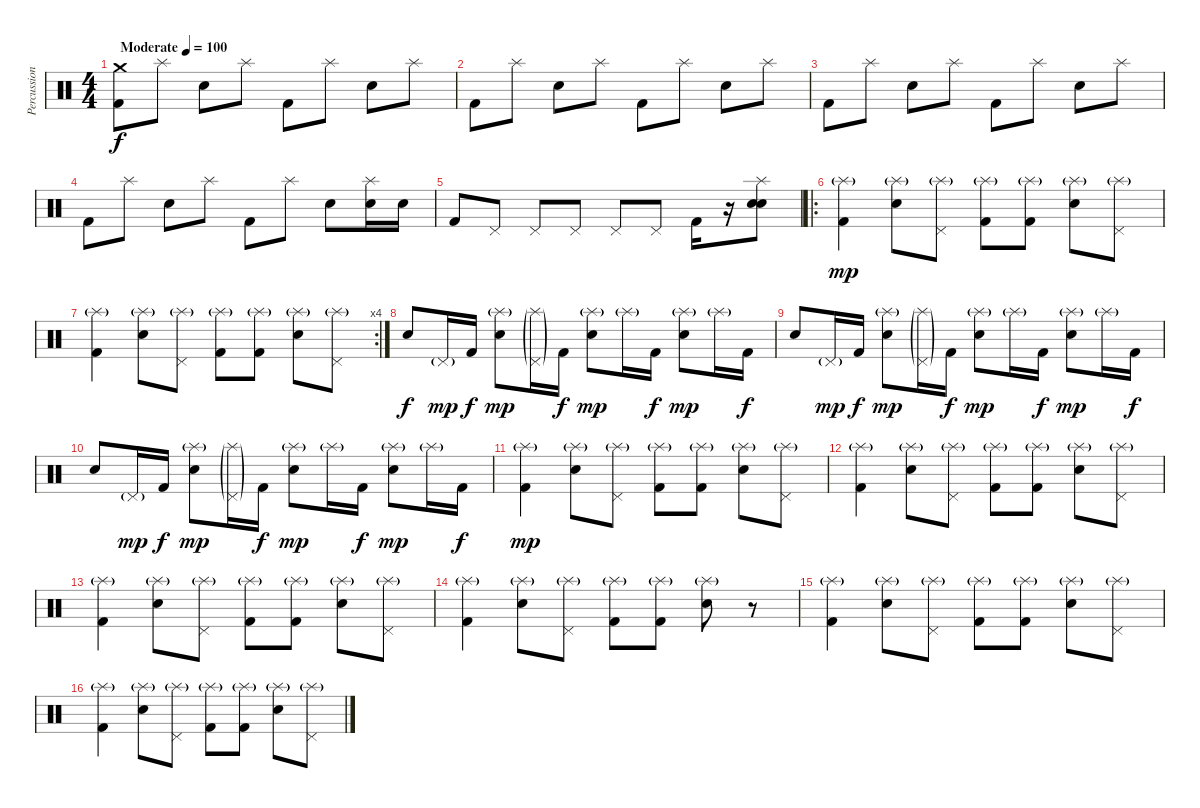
\track ("Percussion" "Percussion") {instrument percussion}
\staff {score}
\articulation defaults
\ts (4 4)
\tempo (100 "Moderate")
\clef neutral
\ks c
("Crash medium (hit)" "Kick (hit) 2").8{dy f} "Splash (hit)".8 "Electric Snare (hit)".8 "Splash (hit)".8 "Kick (hit) 2".8 "Splash (hit)".8 "Electric Snare (hit)".8 "Splash (hit)".8 |
"Kick (hit) 2".8 "Splash (hit)".8 "Electric Snare (hit)".8 "Splash (hit)".8 "Kick (hit) 2".8 "Splash (hit)".8 "Electric Snare (hit)".8 "Splash (hit)".8 |
"Kick (hit) 2".8 "Splash (hit)".8 "Electric Snare (hit)".8 "Splash (hit)".8 "Kick (hit) 2".8 "Splash (hit)".8 "Electric Snare (hit)".8 "Splash (hit)".8 |
"Kick (hit) 2".8 "Splash (hit)".8 "Electric Snare (hit)".8 "Splash (hit)".8 "Kick (hit) 2".8 "Splash (hit)".8 "Electric Snare (hit)".8 ("Splash (hit)" "Electric Snare (hit)").16 "Electric Snare (hit)".16 |
"Kick (hit) 2".8 "Pedal Hi-Hat (hit)".8 "Pedal Hi-Hat (hit)".8 "Pedal Hi-Hat (hit)".8 "Pedal Hi-Hat (hit)".8 "Pedal Hi-Hat (hit)".8 "Kick (hit) 2".16 r.16 ("Splash (hit)" "Snare (hit) 2" "Electric Snare (hit)").8 |
\ro
("Splash (hit)"{g} "Kick (hit) 2").4{dy mp} ("Splash (hit)"{g} "Electric Snare (hit)").8 ("Splash (hit)"{g} "Pedal Hi-Hat (hit)").8 ("Splash (hit)"{g} "Kick (hit) 2").8 ("Splash (hit)"{g} "Kick (hit) 2").8 ("Splash (hit)"{g} "Electric Snare (hit)").8 ("Splash (hit)"{g} "Pedal Hi-Hat (hit)").8 |
\rc 4
("Splash (hit)"{g} "Kick (hit) 2").4 ("Splash (hit)"{g} "Electric Snare (hit)").8 ("Splash (hit)"{g} "Pedal Hi-Hat (hit)").8 ("Splash (hit)"{g} "Kick (hit) 2").8 ("Splash (hit)"{g} "Kick (hit) 2").8 ("Splash (hit)"{g} "Electric Snare (hit)").8 ("Splash (hit)"{g} "Pedal Hi-Hat (hit)").8 |
"Electric Snare (hit)".8{dy f} "Pedal Hi-Hat (hit)"{g}.16{dy mp} "Kick (hit) 2".16{dy f} ("Splash (hit)"{g} "Electric Snare (hit)").8{dy mp} ("Splash (hit)"{g} "Pedal Hi-Hat (hit)"{g}).16 "Kick (hit) 2".16{dy f} ("Splash (hit)"{g} "Electric Snare (hit)").8{dy mp} "Splash (hit)"{g}.16 "Kick (hit) 2".16{dy f} ("Splash (hit)"{g} "Electric Snare (hit)").8{dy mp} "Splash (hit)"{g}.16 "Kick (hit) 2".16{dy f} |
"Electric Snare (hit)".8 "Pedal Hi-Hat (hit)"{g}.16{dy mp} "Kick (hit) 2".16{dy f} ("Splash (hit)"{g} "Electric Snare (hit)").8{dy mp} ("Splash (hit)"{g} "Pedal Hi-Hat (hit)"{g}).16 "Kick (hit) 2".16{dy f} ("Splash (hit)"{g} "Electric Snare (hit)").8{dy mp} "Splash (hit)"{g}.16 "Kick (hit) 2".16{dy f} ("Splash (hit)"{g} "Electric Snare (hit)").8{dy mp} "Splash (hit)"{g}.16 "Kick (hit) 2".16{dy f} |
"Electric Snare (hit)".8 "Pedal Hi-Hat (hit)"{g}.16{dy mp} "Kick (hit) 2".16{dy f} ("Splash (hit)"{g} "Electric Snare (hit)").8{dy mp} ("Splash (hit)"{g} "Pedal Hi-Hat (hit)"{g}).16 "Kick (hit) 2".16{dy f} ("Splash (hit)"{g} "Electric Snare (hit)").8{dy mp} "Splash (hit)"{g}.16 "Kick (hit) 2".16{dy f} ("Splash (hit)"{g} "Electric Snare (hit)").8{dy mp} "Splash (hit)"{g}.16 "Kick (hit) 2".16{dy f} |
("Splash (hit)"{g} "Kick (hit) 2").4{dy mp} ("Splash (hit)"{g} "Electric Snare (hit)").8 ("Splash (hit)"{g} "Pedal Hi-Hat (hit)").8 ("Splash (hit)"{g} "Kick (hit) 2").8 ("Splash (hit)"{g} "Kick (hit) 2").8 ("Splash (hit)"{g} "Electric Snare (hit)").8 ("Splash (hit)"{g} "Pedal Hi-Hat (hit)").8 |
("Splash (hit)"{g} "Kick (hit) 2").4 ("Splash (hit)"{g} "Electric Snare (hit)").8 ("Splash (hit)"{g} "Pedal Hi-Hat (hit)").8 ("Splash (hit)"{g} "Kick (hit) 2").8 ("Splash (hit)"{g} "Kick (hit) 2").8 ("Splash (hit)"{g} "Electric Snare (hit)").8 ("Splash (hit)"{g} "Pedal Hi-Hat (hit)").8 |
("Splash (hit)"{g} "Kick (hit) 2").4 ("Splash (hit)"{g} "Electric Snare (hit)").8 ("Splash (hit)"{g} "Pedal Hi-Hat (hit)").8 ("Splash (hit)"{g} "Kick (hit) 2").8 ("Splash (hit)"{g} "Kick (hit) 2").8 ("Splash (hit)"{g} "Electric Snare (hit)").8 ("Splash (hit)"{g} "Pedal Hi-Hat (hit)").8 |
("Splash (hit)"{g} "Kick (hit) 2").4 ("Splash (hit)"{g} "Electric Snare (hit)").8 ("Splash (hit)"{g} "Pedal Hi-Hat (hit)").8 ("Splash (hit)"{g} "Kick (hit) 2").8 ("Splash (hit)"{g} "Kick (hit) 2").8 ("Splash (hit)"{g} "Electric Snare (hit)").8 r.8 |
("Splash (hit)"{g} "Kick (hit) 2").4 ("Splash (hit)"{g} "Electric Snare (hit)").8 ("Splash (hit)"{g} "Pedal Hi-Hat (hit)").8 ("Splash (hit)"{g} "Kick (hit) 2").8 ("Splash (hit)"{g} "Kick (hit) 2").8 ("Splash (hit)"{g} "Electric Snare (hit)").8 ("Splash (hit)"{g} "Pedal Hi-Hat (hit)").8 |
("Splash (hit)"{g} "Kick (hit) 2").4 ("Splash (hit)"{g} "Electric Snare (hit)").8 ("Splash (hit)"{g} "Pedal Hi-Hat (hit)").8 ("Splash (hit)"{g} "Kick (hit) 2").8 ("Splash (hit)"{g} "Kick (hit) 2").8 ("Splash (hit)"{g} "Electric Snare (hit)").8 ("Splash (hit)"{g} "Pedal Hi-Hat (hit)").8
